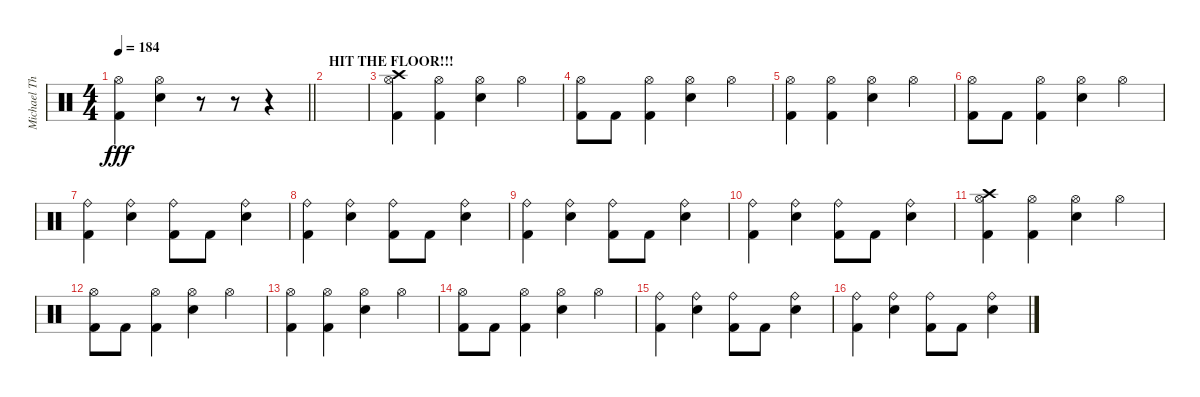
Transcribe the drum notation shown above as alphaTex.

\track ("Michael Thomas" "Michael Th") {instrument percussion}
\staff {score}
\articulation defaults
\ts (4 4)
\tempo 184
\clef neutral
\barLineRight lightlight
\ks c
("Hi-Hat (open)" "Kick (hit) 2").4{dy fff} ("Hi-Hat (open)" "Snare (hit) 2").4 r.8 r.8 r.4 |
\section ("" "HIT THE FLOOR!!!")
|
("Crash high (hit)" "Hi-Hat (open)" "Kick (hit) 2").4 ("Hi-Hat (open)" "Kick (hit) 2").4 ("Hi-Hat (open)" "Snare (hit) 2").4 "Hi-Hat (open)".4 |
("Hi-Hat (open)" "Kick (hit) 2").8 "Kick (hit) 2".8 ("Hi-Hat (open)" "Kick (hit) 2").4 ("Hi-Hat (open)" "Snare (hit) 2").4 "Hi-Hat (open)".4 |
("Hi-Hat (open)" "Kick (hit) 2").4 ("Hi-Hat (open)" "Kick (hit) 2").4 ("Hi-Hat (open)" "Snare (hit) 2").4 "Hi-Hat (open)".4 |
("Hi-Hat (open)" "Kick (hit) 2").8 "Kick (hit) 2".8 ("Hi-Hat (open)" "Kick (hit) 2").4 ("Hi-Hat (open)" "Snare (hit) 2").4 "Hi-Hat (open)".4 |
("Ride (bell)" "Kick (hit) 2").4 ("Ride (bell)" "Snare (hit) 2").4 ("Ride (bell)" "Kick (hit) 2").8 "Kick (hit) 2".8 ("Ride (bell)" "Snare (hit) 2").4 |
("Ride (bell)" "Kick (hit) 2").4 ("Ride (bell)" "Snare (hit) 2").4 ("Ride (bell)" "Kick (hit) 2").8 "Kick (hit) 2".8 ("Ride (bell)" "Snare (hit) 2").4 |
("Ride (bell)" "Kick (hit) 2").4 ("Ride (bell)" "Snare (hit) 2").4 ("Ride (bell)" "Kick (hit) 2").8 "Kick (hit) 2".8 ("Ride (bell)" "Snare (hit) 2").4 |
("Ride (bell)" "Kick (hit) 2").4 ("Ride (bell)" "Snare (hit) 2").4 ("Ride (bell)" "Kick (hit) 2").8 "Kick (hit) 2".8 ("Ride (bell)" "Snare (hit) 2").4 |
("Crash high (hit)" "Hi-Hat (open)" "Kick (hit) 2").4 ("Hi-Hat (open)" "Kick (hit) 2").4 ("Hi-Hat (open)" "Snare (hit) 2").4 "Hi-Hat (open)".4 |
("Hi-Hat (open)" "Kick (hit) 2").8 "Kick (hit) 2".8 ("Hi-Hat (open)" "Kick (hit) 2").4 ("Hi-Hat (open)" "Snare (hit) 2").4 "Hi-Hat (open)".4 |
("Hi-Hat (open)" "Kick (hit) 2").4 ("Hi-Hat (open)" "Kick (hit) 2").4 ("Hi-Hat (open)" "Snare (hit) 2").4 "Hi-Hat (open)".4 |
("Hi-Hat (open)" "Kick (hit) 2").8 "Kick (hit) 2".8 ("Hi-Hat (open)" "Kick (hit) 2").4 ("Hi-Hat (open)" "Snare (hit) 2").4 "Hi-Hat (open)".4 |
("Ride (bell)" "Kick (hit) 2").4 ("Ride (bell)" "Snare (hit) 2").4 ("Ride (bell)" "Kick (hit) 2").8 "Kick (hit) 2".8 ("Ride (bell)" "Snare (hit) 2").4 |
("Ride (bell)" "Kick (hit) 2").4 ("Ride (bell)" "Snare (hit) 2").4 ("Ride (bell)" "Kick (hit) 2").8 "Kick (hit) 2".8 ("Ride (bell)" "Snare (hit) 2").4
